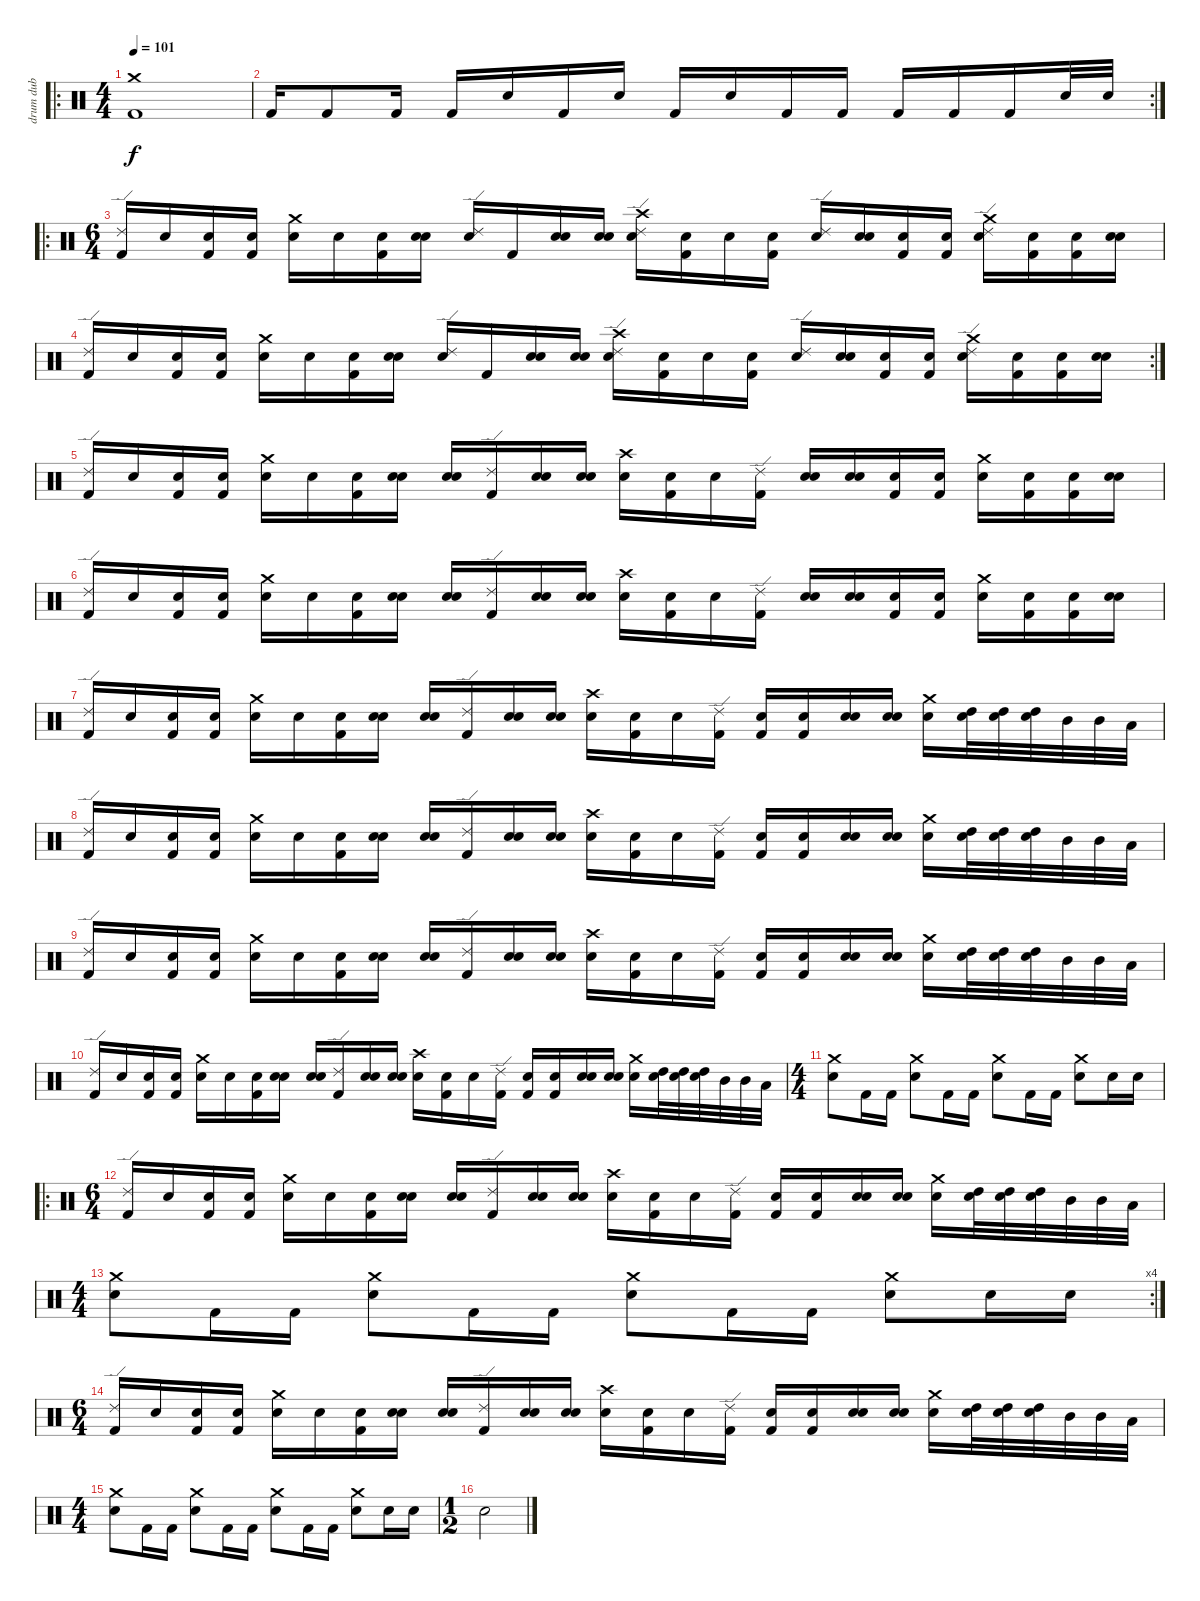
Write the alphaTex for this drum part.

\track ("drum dub" "drum dub") {instrument percussion}
\staff {score}
\articulation defaults
\ro
\ts (4 4)
\tempo 101
\clef neutral
\ks c
("Crash medium (hit)" "Kick (hit) 2").1{dy f} |
\rc 2 "Kick (hit) 2".16 "Kick (hit) 2".8 "Kick (hit) 2".16 "Kick (hit) 2".16 "Electric Snare (hit)".16 "Kick (hit) 2".16 "Snare (hit)".16 "Kick (hit) 2".16 "Snare (hit)".16 "Kick (hit) 2".16 "Kick (hit) 2".16 "Kick (hit) 2".16 "Kick (hit) 2".16 "Kick (hit) 2".16 "Electric Snare (hit)".32 "Electric Snare (hit)".32
|
\ro
\ts (6 4)
("Ride (edge) 2" "Kick (hit) 2").16 "Snare (hit)".16 ("Snare (hit)" "Kick (hit) 2").16 ("Snare (hit)" "Kick (hit) 2").16 ("Crash medium (hit)" "Electric Snare (hit)").16 "Snare (hit)".16 ("Snare (hit)" "Kick (hit) 2").16 ("Snare (hit)" "Snare (hit)").16 ("Ride (edge) 2" "Snare (hit)").16 "Kick (hit) 2".16 ("Snare (hit)" "Snare (hit)").16 ("Snare (hit)" "Snare (hit)").16 ("Crash high (hit)" "Electric Snare (hit)" "Ride (edge) 2").16 ("Snare (hit)" "Kick (hit) 2").16 "Snare (hit)".16 ("Snare (hit)" "Kick (hit) 2").16 ("Snare (hit)" "Ride (edge) 2").16 ("Snare (hit)" "Snare (hit)").16 ("Snare (hit)" "Kick (hit) 2").16 ("Snare (hit)" "Kick (hit) 2").16 ("Crash medium (hit)" "Electric Snare (hit)" "Ride (edge) 2").16 ("Snare (hit)" "Kick (hit) 2").16 ("Snare (hit)" "Kick (hit) 2").16 ("Snare (hit)" "Snare (hit)").16 |
\rc 2
("Ride (edge) 2" "Kick (hit) 2").16 "Snare (hit)".16 ("Snare (hit)" "Kick (hit) 2").16 ("Snare (hit)" "Kick (hit) 2").16 ("Crash medium (hit)" "Electric Snare (hit)").16 "Snare (hit)".16 ("Snare (hit)" "Kick (hit) 2").16 ("Snare (hit)" "Snare (hit)").16 ("Ride (edge) 2" "Snare (hit)").16 "Kick (hit) 2".16 ("Snare (hit)" "Snare (hit)").16 ("Snare (hit)" "Snare (hit)").16 ("Crash high (hit)" "Electric Snare (hit)" "Ride (edge) 2").16 ("Snare (hit)" "Kick (hit) 2").16 "Snare (hit)".16 ("Snare (hit)" "Kick (hit) 2").16 ("Snare (hit)" "Ride (edge) 2").16 ("Snare (hit)" "Snare (hit)").16 ("Snare (hit)" "Kick (hit) 2").16 ("Snare (hit)" "Kick (hit) 2").16 ("Crash medium (hit)" "Electric Snare (hit)" "Ride (edge) 2").16 ("Snare (hit)" "Kick (hit) 2").16 ("Snare (hit)" "Kick (hit) 2").16 ("Snare (hit)" "Snare (hit)").16 |
("Ride (edge) 2" "Kick (hit) 2").16 "Snare (hit)".16 ("Snare (hit)" "Kick (hit) 2").16 ("Snare (hit)" "Kick (hit) 2").16 ("Crash medium (hit)" "Electric Snare (hit)").16 "Snare (hit)".16 ("Snare (hit)" "Kick (hit) 2").16 ("Snare (hit)" "Snare (hit)").16 ("Snare (hit)" "Snare (hit)").16 ("Ride (edge) 2" "Kick (hit) 2").16 ("Snare (hit)" "Snare (hit)").16 ("Snare (hit)" "Snare (hit)").16 ("Crash high (hit)" "Electric Snare (hit)").16 ("Snare (hit)" "Kick (hit) 2").16 "Snare (hit)".16 ("Ride (edge) 2" "Kick (hit) 2").16 ("Snare (hit)" "Snare (hit)").16 ("Snare (hit)" "Snare (hit)").16 ("Snare (hit)" "Kick (hit) 2").16 ("Snare (hit)" "Kick (hit) 2").16 ("Crash medium (hit)" "Electric Snare (hit)").16 ("Snare (hit)" "Kick (hit) 2").16 ("Snare (hit)" "Kick (hit) 2").16 ("Snare (hit)" "Snare (hit)").16 |
("Ride (edge) 2" "Kick (hit) 2").16 "Snare (hit)".16 ("Snare (hit)" "Kick (hit) 2").16 ("Snare (hit)" "Kick (hit) 2").16 ("Crash medium (hit)" "Electric Snare (hit)").16 "Snare (hit)".16 ("Snare (hit)" "Kick (hit) 2").16 ("Snare (hit)" "Snare (hit)").16 ("Snare (hit)" "Snare (hit)").16 ("Ride (edge) 2" "Kick (hit) 2").16 ("Snare (hit)" "Snare (hit)").16 ("Snare (hit)" "Snare (hit)").16 ("Crash high (hit)" "Electric Snare (hit)").16 ("Snare (hit)" "Kick (hit) 2").16 "Snare (hit)".16 ("Ride (edge) 2" "Kick (hit) 2").16 ("Snare (hit)" "Snare (hit)").16 ("Snare (hit)" "Snare (hit)").16 ("Snare (hit)" "Kick (hit) 2").16 ("Snare (hit)" "Kick (hit) 2").16 ("Crash medium (hit)" "Electric Snare (hit)").16 ("Snare (hit)" "Kick (hit) 2").16 ("Snare (hit)" "Kick (hit) 2").16 ("Snare (hit)" "Snare (hit)").16 |
("Ride (edge) 2" "Kick (hit) 2").16 "Snare (hit)".16 ("Snare (hit)" "Kick (hit) 2").16 ("Snare (hit)" "Kick (hit) 2").16 ("Crash medium (hit)" "Electric Snare (hit)").16 "Snare (hit)".16 ("Snare (hit)" "Kick (hit) 2").16 ("Snare (hit)" "Snare (hit)").16 ("Snare (hit)" "Snare (hit)").16 ("Ride (edge) 2" "Kick (hit) 2").16 ("Snare (hit)" "Snare (hit)").16 ("Snare (hit)" "Snare (hit)").16 ("Crash high (hit)" "Electric Snare (hit)").16 ("Snare (hit)" "Kick (hit) 2").16 "Snare (hit)".16 ("Ride (edge) 2" "Kick (hit) 2").16 ("Snare (hit)" "Kick (hit) 2").16 ("Snare (hit)" "Kick (hit) 2").16 ("Snare (hit)" "Electric Snare (hit)").16 ("Snare (hit)" "Electric Snare (hit)").16 ("Crash medium (hit)" "Electric Snare (hit)").16 ("Snare (hit)" "High Tom (hit)").32 ("Snare (hit)" "High Tom (hit)").32 ("Snare (hit)" "High Tom (hit)").32 "Mid Tom (hit)".32 "Mid Tom (hit)".32 "Low Tom (hit)".32 |
("Ride (edge) 2" "Kick (hit) 2").16 "Snare (hit)".16 ("Snare (hit)" "Kick (hit) 2").16 ("Snare (hit)" "Kick (hit) 2").16 ("Crash medium (hit)" "Electric Snare (hit)").16 "Snare (hit)".16 ("Snare (hit)" "Kick (hit) 2").16 ("Snare (hit)" "Snare (hit)").16 ("Snare (hit)" "Snare (hit)").16 ("Ride (edge) 2" "Kick (hit) 2").16 ("Snare (hit)" "Snare (hit)").16 ("Snare (hit)" "Snare (hit)").16 ("Crash high (hit)" "Electric Snare (hit)").16 ("Snare (hit)" "Kick (hit) 2").16 "Snare (hit)".16 ("Ride (edge) 2" "Kick (hit) 2").16 ("Snare (hit)" "Kick (hit) 2").16 ("Snare (hit)" "Kick (hit) 2").16 ("Snare (hit)" "Electric Snare (hit)").16 ("Snare (hit)" "Electric Snare (hit)").16 ("Crash medium (hit)" "Electric Snare (hit)").16 ("Snare (hit)" "High Tom (hit)").32 ("Snare (hit)" "High Tom (hit)").32 ("Snare (hit)" "High Tom (hit)").32 "Mid Tom (hit)".32 "Mid Tom (hit)".32 "Low Tom (hit)".32 |
("Ride (edge) 2" "Kick (hit) 2").16 "Snare (hit)".16 ("Snare (hit)" "Kick (hit) 2").16 ("Snare (hit)" "Kick (hit) 2").16 ("Crash medium (hit)" "Electric Snare (hit)").16 "Snare (hit)".16 ("Snare (hit)" "Kick (hit) 2").16 ("Snare (hit)" "Snare (hit)").16 ("Snare (hit)" "Snare (hit)").16 ("Ride (edge) 2" "Kick (hit) 2").16 ("Snare (hit)" "Snare (hit)").16 ("Snare (hit)" "Snare (hit)").16 ("Crash high (hit)" "Electric Snare (hit)").16 ("Snare (hit)" "Kick (hit) 2").16 "Snare (hit)".16 ("Ride (edge) 2" "Kick (hit) 2").16 ("Snare (hit)" "Kick (hit) 2").16 ("Snare (hit)" "Kick (hit) 2").16 ("Snare (hit)" "Electric Snare (hit)").16 ("Snare (hit)" "Electric Snare (hit)").16 ("Crash medium (hit)" "Electric Snare (hit)").16 ("Snare (hit)" "High Tom (hit)").32 ("Snare (hit)" "High Tom (hit)").32 ("Snare (hit)" "High Tom (hit)").32 "Mid Tom (hit)".32 "Mid Tom (hit)".32 "Low Tom (hit)".32 |
("Ride (edge) 2" "Kick (hit) 2").16 "Snare (hit)".16 ("Snare (hit)" "Kick (hit) 2").16 ("Snare (hit)" "Kick (hit) 2").16 ("Crash medium (hit)" "Electric Snare (hit)").16 "Snare (hit)".16 ("Snare (hit)" "Kick (hit) 2").16 ("Snare (hit)" "Snare (hit)").16 ("Snare (hit)" "Snare (hit)").16 ("Ride (edge) 2" "Kick (hit) 2").16 ("Snare (hit)" "Snare (hit)").16 ("Snare (hit)" "Snare (hit)").16 ("Crash high (hit)" "Electric Snare (hit)").16 ("Snare (hit)" "Kick (hit) 2").16 "Snare (hit)".16 ("Ride (edge) 2" "Kick (hit) 2").16 ("Snare (hit)" "Kick (hit) 2").16 ("Snare (hit)" "Kick (hit) 2").16 ("Snare (hit)" "Electric Snare (hit)").16 ("Snare (hit)" "Electric Snare (hit)").16 ("Crash medium (hit)" "Electric Snare (hit)").16 ("Snare (hit)" "High Tom (hit)").32 ("Snare (hit)" "High Tom (hit)").32 ("Snare (hit)" "High Tom (hit)").32 "Mid Tom (hit)".32 "Mid Tom (hit)".32 "Low Tom (hit)".32 |
\ts (4 4)
("Crash medium (hit)" "Electric Snare (hit)").8 "Kick (hit) 2".16 "Kick (hit) 2".16 ("Crash medium (hit)" "Electric Snare (hit)").8 "Kick (hit) 2".16 "Kick (hit) 2".16 ("Crash medium (hit)" "Electric Snare (hit)").8 "Kick (hit) 2".16 "Kick (hit) 2".16 ("Crash medium (hit)" "Electric Snare (hit)").8 "Electric Snare (hit)".16 "Electric Snare (hit)".16 |
\ro
\ts (6 4)
("Ride (edge) 2" "Kick (hit) 2").16 "Snare (hit)".16 ("Snare (hit)" "Kick (hit) 2").16 ("Snare (hit)" "Kick (hit) 2").16 ("Crash medium (hit)" "Electric Snare (hit)").16 "Snare (hit)".16 ("Snare (hit)" "Kick (hit) 2").16 ("Snare (hit)" "Snare (hit)").16 ("Snare (hit)" "Snare (hit)").16 ("Ride (edge) 2" "Kick (hit) 2").16 ("Snare (hit)" "Snare (hit)").16 ("Snare (hit)" "Snare (hit)").16 ("Crash high (hit)" "Electric Snare (hit)").16 ("Snare (hit)" "Kick (hit) 2").16 "Snare (hit)".16 ("Ride (edge) 2" "Kick (hit) 2").16 ("Snare (hit)" "Kick (hit) 2").16 ("Snare (hit)" "Kick (hit) 2").16 ("Snare (hit)" "Electric Snare (hit)").16 ("Snare (hit)" "Electric Snare (hit)").16 ("Crash medium (hit)" "Electric Snare (hit)").16 ("Snare (hit)" "High Tom (hit)").32 ("Snare (hit)" "High Tom (hit)").32 ("Snare (hit)" "High Tom (hit)").32 "Mid Tom (hit)".32 "Mid Tom (hit)".32 "Low Tom (hit)".32 |
\rc 4
\ts (4 4)
("Crash medium (hit)" "Electric Snare (hit)").8 "Kick (hit) 2".16 "Kick (hit) 2".16 ("Crash medium (hit)" "Electric Snare (hit)").8 "Kick (hit) 2".16 "Kick (hit) 2".16 ("Crash medium (hit)" "Electric Snare (hit)").8 "Kick (hit) 2".16 "Kick (hit) 2".16 ("Crash medium (hit)" "Electric Snare (hit)").8 "Electric Snare (hit)".16 "Electric Snare (hit)".16 |
\ts (6 4)
("Ride (edge) 2" "Kick (hit) 2").16 "Snare (hit)".16 ("Snare (hit)" "Kick (hit) 2").16 ("Snare (hit)" "Kick (hit) 2").16 ("Crash medium (hit)" "Electric Snare (hit)").16 "Snare (hit)".16 ("Snare (hit)" "Kick (hit) 2").16 ("Snare (hit)" "Snare (hit)").16 ("Snare (hit)" "Snare (hit)").16 ("Ride (edge) 2" "Kick (hit) 2").16 ("Snare (hit)" "Snare (hit)").16 ("Snare (hit)" "Snare (hit)").16 ("Crash high (hit)" "Electric Snare (hit)").16 ("Snare (hit)" "Kick (hit) 2").16 "Snare (hit)".16 ("Ride (edge) 2" "Kick (hit) 2").16 ("Snare (hit)" "Kick (hit) 2").16 ("Snare (hit)" "Kick (hit) 2").16 ("Snare (hit)" "Electric Snare (hit)").16 ("Snare (hit)" "Electric Snare (hit)").16 ("Crash medium (hit)" "Electric Snare (hit)").16 ("Snare (hit)" "High Tom (hit)").32 ("Snare (hit)" "High Tom (hit)").32 ("Snare (hit)" "High Tom (hit)").32 "Mid Tom (hit)".32 "Mid Tom (hit)".32 "Low Tom (hit)".32 |
\ts (4 4)
("Crash medium (hit)" "Electric Snare (hit)").8 "Kick (hit) 2".16 "Kick (hit) 2".16 ("Crash medium (hit)" "Electric Snare (hit)").8 "Kick (hit) 2".16 "Kick (hit) 2".16 ("Crash medium (hit)" "Electric Snare (hit)").8 "Kick (hit) 2".16 "Kick (hit) 2".16 ("Crash medium (hit)" "Electric Snare (hit)").8 "Electric Snare (hit)".16 "Electric Snare (hit)".16 |
\ts (1 2)
"Snare (hit)".2
